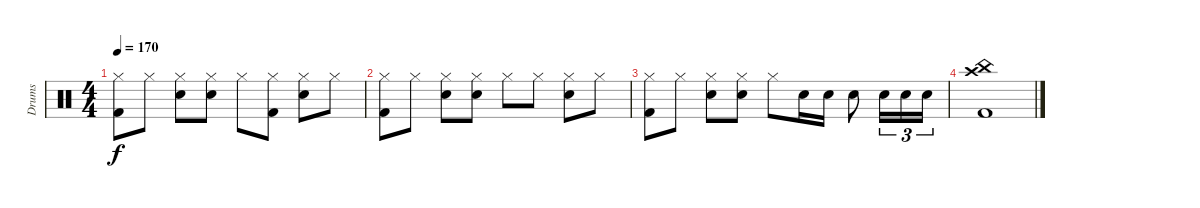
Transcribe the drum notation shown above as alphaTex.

\track ("Drums" "Drums") {instrument percussion}
\staff {score}
\articulation defaults
\ts (4 4)
\tempo 170
\clef neutral
\ks c
("Hi-Hat (closed)" "Kick (hit) 2").8{dy f} "Hi-Hat (closed)".8 ("Hi-Hat (closed)" "Electric Snare (hit)").8 ("Hi-Hat (closed)" "Electric Snare (hit)").8 "Hi-Hat (closed)".8 ("Hi-Hat (closed)" "Kick (hit) 2").8 ("Hi-Hat (closed)" "Electric Snare (hit)").8 "Hi-Hat (closed)".8 |
("Hi-Hat (closed)" "Kick (hit) 2").8 "Hi-Hat (closed)".8 ("Hi-Hat (closed)" "Electric Snare (hit)").8 ("Hi-Hat (closed)" "Electric Snare (hit)").8 "Hi-Hat (closed)".8 "Hi-Hat (closed)".8 ("Hi-Hat (closed)" "Electric Snare (hit)").8 "Hi-Hat (closed)".8 |
("Hi-Hat (closed)" "Kick (hit) 2").8 "Hi-Hat (closed)".8 ("Hi-Hat (closed)" "Electric Snare (hit)").8 ("Hi-Hat (closed)" "Electric Snare (hit)").8 "Hi-Hat (closed)".8 "Electric Snare (hit)".16 "Electric Snare (hit)".16 "Electric Snare (hit)".8 "Electric Snare (hit)".16{tu (3 2)} "Electric Snare (hit)".16{tu (3 2)} "Electric Snare (hit)".16{tu (3 2)} |
("China (hit)" "Crash high (hit)" "Kick (hit) 2").1
